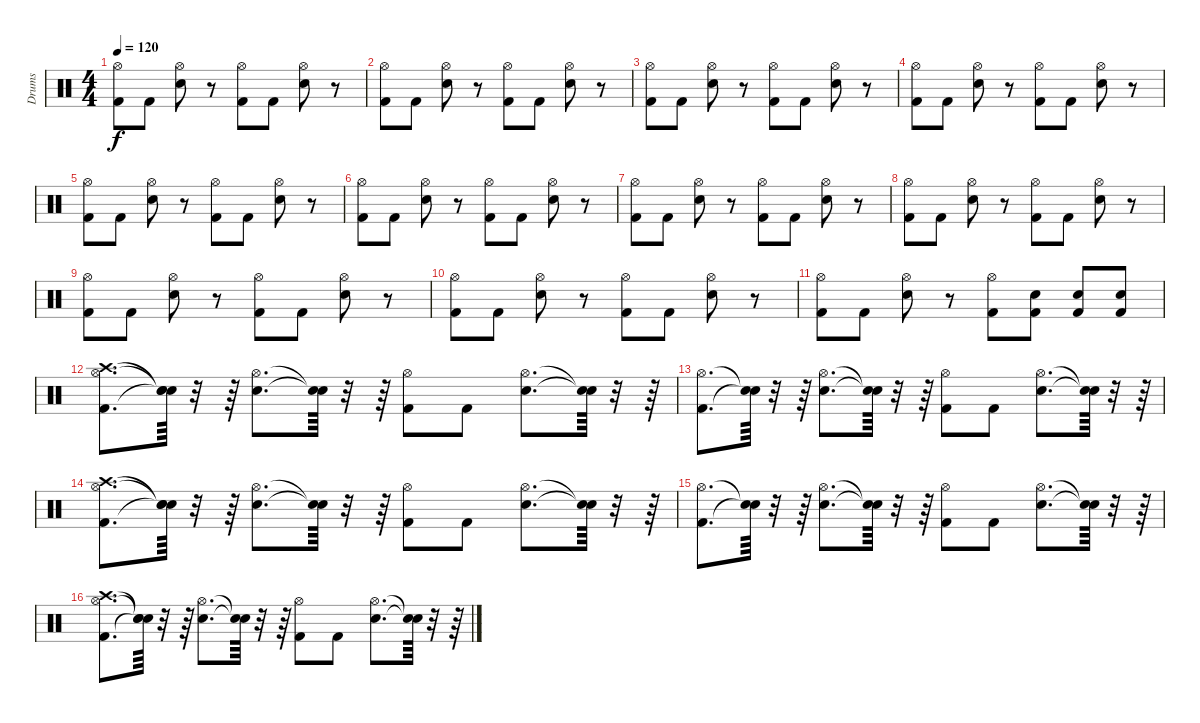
\track ("Drums" "Drums") {instrument percussion}
\staff {score}
\articulation defaults
\ts (4 4)
\tempo 120
\clef neutral
\ks c
("Kick (hit) 2" "Hi-Hat (open)").8{dy f} "Kick (hit) 2".8 ("Snare (hit) 2" "Hi-Hat (open)").8 r.8 ("Kick (hit) 2" "Hi-Hat (open)").8 "Kick (hit) 2".8 ("Snare (hit) 2" "Hi-Hat (open)").8 r.8 |
("Kick (hit) 2" "Hi-Hat (open)").8 "Kick (hit) 2".8 ("Snare (hit) 2" "Hi-Hat (open)").8 r.8 ("Kick (hit) 2" "Hi-Hat (open)").8 "Kick (hit) 2".8 ("Snare (hit) 2" "Hi-Hat (open)").8 r.8 |
("Kick (hit) 2" "Hi-Hat (open)").8 "Kick (hit) 2".8 ("Snare (hit) 2" "Hi-Hat (open)").8 r.8 ("Kick (hit) 2" "Hi-Hat (open)").8 "Kick (hit) 2".8 ("Snare (hit) 2" "Hi-Hat (open)").8 r.8 |
("Kick (hit) 2" "Hi-Hat (open)").8 "Kick (hit) 2".8 ("Snare (hit) 2" "Hi-Hat (open)").8 r.8 ("Kick (hit) 2" "Hi-Hat (open)").8 "Kick (hit) 2".8 ("Snare (hit) 2" "Hi-Hat (open)").8 r.8 |
("Kick (hit) 2" "Hi-Hat (open)").8 "Kick (hit) 2".8 ("Snare (hit) 2" "Hi-Hat (open)").8 r.8 ("Kick (hit) 2" "Hi-Hat (open)").8 "Kick (hit) 2".8 ("Snare (hit) 2" "Hi-Hat (open)").8 r.8 |
("Kick (hit) 2" "Hi-Hat (open)").8 "Kick (hit) 2".8 ("Snare (hit) 2" "Hi-Hat (open)").8 r.8 ("Kick (hit) 2" "Hi-Hat (open)").8 "Kick (hit) 2".8 ("Snare (hit) 2" "Hi-Hat (open)").8 r.8 |
("Kick (hit) 2" "Hi-Hat (open)").8 "Kick (hit) 2".8 ("Snare (hit) 2" "Hi-Hat (open)").8 r.8 ("Kick (hit) 2" "Hi-Hat (open)").8 "Kick (hit) 2".8 ("Snare (hit) 2" "Hi-Hat (open)").8 r.8 |
("Kick (hit) 2" "Hi-Hat (open)").8 "Kick (hit) 2".8 ("Snare (hit) 2" "Hi-Hat (open)").8 r.8 ("Kick (hit) 2" "Hi-Hat (open)").8 "Kick (hit) 2".8 ("Snare (hit) 2" "Hi-Hat (open)").8 r.8 |
("Kick (hit) 2" "Hi-Hat (open)").8 "Kick (hit) 2".8 ("Snare (hit) 2" "Hi-Hat (open)").8 r.8 ("Kick (hit) 2" "Hi-Hat (open)").8 "Kick (hit) 2".8 ("Snare (hit) 2" "Hi-Hat (open)").8 r.8 |
("Kick (hit) 2" "Hi-Hat (open)").8 "Kick (hit) 2".8 ("Snare (hit) 2" "Hi-Hat (open)").8 r.8 ("Kick (hit) 2" "Hi-Hat (open)").8 "Kick (hit) 2".8 ("Snare (hit) 2" "Hi-Hat (open)").8 r.8 |
("Kick (hit) 2" "Hi-Hat (open)").8 "Kick (hit) 2".8 ("Snare (hit) 2" "Hi-Hat (open)").8 r.8 ("Kick (hit) 2" "Hi-Hat (open)").8 ("Kick (hit) 2" "Snare (hit) 2").8 ("Kick (hit) 2" "Snare (hit) 2").8 ("Kick (hit) 2" "Snare (hit) 2").8 |
("Kick (hit) 2" "Hi-Hat (open)" "Crash high (hit)").8{d} ("Snare (hit)"{t} "Snare (hit)"{t} "Snare (hit)"{t}).64 r.32 r.64 ("Snare (hit) 2" "Hi-Hat (open)").8{d} ("Snare (hit)"{t} "Snare (hit)"{t}).64 r.32 r.64 ("Kick (hit) 2" "Hi-Hat (open)").8 "Kick (hit) 2".8 ("Snare (hit) 2" "Hi-Hat (open)").8{d} ("Snare (hit)"{t} "Snare (hit)"{t}).64 r.32 r.64 |
("Kick (hit) 2" "Hi-Hat (open)").8{d} ("Snare (hit)"{t} "Snare (hit)"{t}).64 r.32 r.64 ("Snare (hit) 2" "Hi-Hat (open)").8{d} ("Snare (hit)"{t} "Snare (hit)"{t}).64 r.32 r.64 ("Kick (hit) 2" "Hi-Hat (open)").8 "Kick (hit) 2".8 ("Snare (hit) 2" "Hi-Hat (open)").8{d} ("Snare (hit)"{t} "Snare (hit)"{t}).64 r.32 r.64 |
("Kick (hit) 2" "Hi-Hat (open)" "Crash high (hit)").8{d} ("Snare (hit)"{t} "Snare (hit)"{t} "Snare (hit)"{t}).64 r.32 r.64 ("Snare (hit) 2" "Hi-Hat (open)").8{d} ("Snare (hit)"{t} "Snare (hit)"{t}).64 r.32 r.64 ("Kick (hit) 2" "Hi-Hat (open)").8 "Kick (hit) 2".8 ("Snare (hit) 2" "Hi-Hat (open)").8{d} ("Snare (hit)"{t} "Snare (hit)"{t}).64 r.32 r.64 |
("Kick (hit) 2" "Hi-Hat (open)").8{d} ("Snare (hit)"{t} "Snare (hit)"{t}).64 r.32 r.64 ("Snare (hit) 2" "Hi-Hat (open)").8{d} ("Snare (hit)"{t} "Snare (hit)"{t}).64 r.32 r.64 ("Kick (hit) 2" "Hi-Hat (open)").8 "Kick (hit) 2".8 ("Snare (hit) 2" "Hi-Hat (open)").8{d} ("Snare (hit)"{t} "Snare (hit)"{t}).64 r.32 r.64 |
("Kick (hit) 2" "Hi-Hat (open)" "Crash high (hit)").8{d} ("Snare (hit)"{t} "Snare (hit)"{t} "Snare (hit)"{t}).64 r.32 r.64 ("Snare (hit) 2" "Hi-Hat (open)").8{d} ("Snare (hit)"{t} "Snare (hit)"{t}).64 r.32 r.64 ("Kick (hit) 2" "Hi-Hat (open)").8 "Kick (hit) 2".8 ("Snare (hit) 2" "Hi-Hat (open)").8{d} ("Snare (hit)"{t} "Snare (hit)"{t}).64 r.32 r.64
